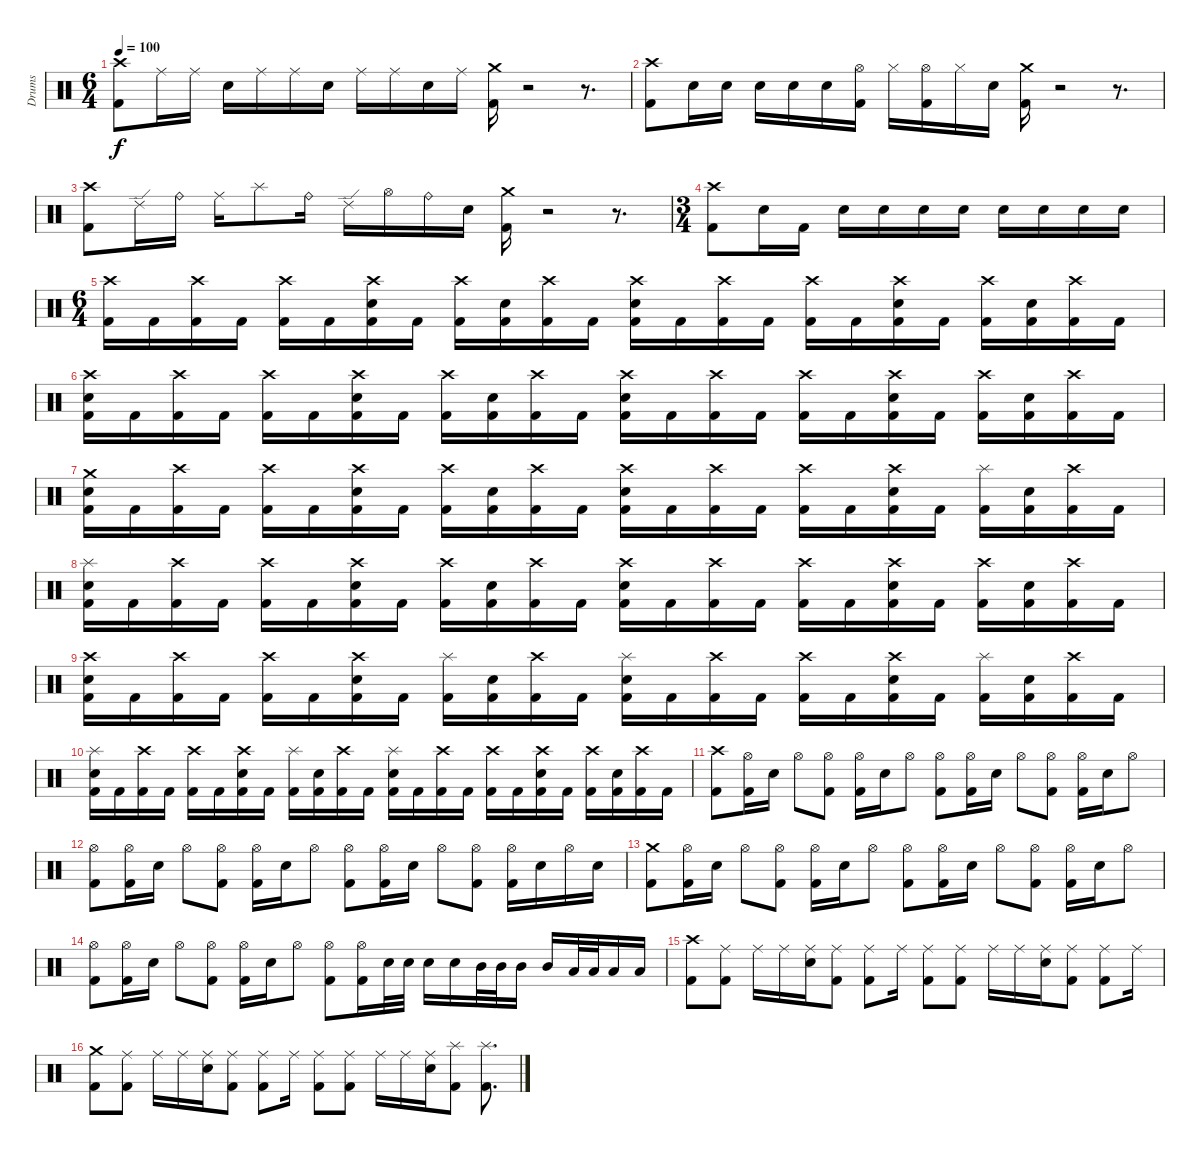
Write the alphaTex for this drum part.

\track ("Drums" "Drums") {instrument percussion}
\staff {score}
\articulation defaults
\ts (6 4)
\tempo 100
\clef neutral
\ks c
("Crash high (hit)" "Kick (hit) 2").8{dy f volume 12} "Ride (middle)".16 "Ride (middle)".16 "Electric Snare (hit)".16 "Ride (middle)".16 "Ride (middle)".16 "Electric Snare (hit)".16 "Ride (middle)".16 "Ride (middle)".16 "Electric Snare (hit)".16 "Ride (middle)".16 ("Crash medium (hit)" "Kick (hit) 2").16 r.2{volume 0} r.8{d} |
("Crash high (hit)" "Kick (hit) 2").8{volume 12} "Electric Snare (hit)".16 "Electric Snare (hit)".16 "Electric Snare (hit)".16 "Electric Snare (hit)".16 "Electric Snare (hit)".16 ("Hi-Hat (open)" "Kick (hit) 2").16 "Hi-Hat (closed)".16 ("Hi-Hat (open)" "Kick (hit) 2").16 "Hi-Hat (closed)".16 "Electric Snare (hit)".16 ("Crash medium (hit)" "Kick (hit) 2").16 r.2{volume 0} r.8{d} |
("Crash high (hit)" "Kick (hit) 2").8{volume 12} "Ride (edge) 2".16 "Ride (bell)".16 "Ride (middle)".16 "Splash (hit)".8 "Ride (bell)".16 "Ride (edge) 2".16 "Hi-Hat (open)".16 "Ride (bell)".16 "Electric Snare (hit)".16 ("Crash medium (hit)" "Kick (hit) 2").16 r.2{volume 0} r.8{d} |
\ts (3 4)
("Crash high (hit)" "Kick (hit) 2").8{volume 12} "Electric Snare (hit)".16 "Kick (hit) 2".16 "Electric Snare (hit)".16 "Electric Snare (hit)".16 "Electric Snare (hit)".16 "Electric Snare (hit)".16 "Electric Snare (hit)".16 "Electric Snare (hit)".16 "Electric Snare (hit)".16 "Electric Snare (hit)".16 |
\ts (6 4)
("Crash high (hit)" "Kick (hit) 2").16 "Kick (hit) 2".16 ("Crash high (hit)" "Kick (hit) 2").16 "Kick (hit) 2".16 ("Crash high (hit)" "Kick (hit) 2").16 "Kick (hit) 2".16 ("Crash high (hit)" "Electric Snare (hit)" "Kick (hit) 2").16 "Kick (hit) 2".16 ("Crash high (hit)" "Kick (hit) 2").16 ("Electric Snare (hit)" "Kick (hit) 2").16 ("Crash high (hit)" "Kick (hit) 2").16 "Kick (hit) 2".16 ("Crash high (hit)" "Electric Snare (hit)" "Kick (hit) 2").16 "Kick (hit) 2".16 ("Crash high (hit)" "Kick (hit) 2").16 "Kick (hit) 2".16 ("Crash high (hit)" "Kick (hit) 2").16 "Kick (hit) 2".16 ("Crash high (hit)" "Electric Snare (hit)" "Kick (hit) 2").16 "Kick (hit) 2".16 ("Crash high (hit)" "Kick (hit) 2").16 ("Electric Snare (hit)" "Kick (hit) 2").16 ("Crash high (hit)" "Kick (hit) 2").16 "Kick (hit) 2".16 |
("Crash high (hit)" "Electric Snare (hit)" "Kick (hit) 2").16 "Kick (hit) 2".16 ("Crash high (hit)" "Kick (hit) 2").16 "Kick (hit) 2".16 ("Crash high (hit)" "Kick (hit) 2").16 "Kick (hit) 2".16 ("Crash high (hit)" "Electric Snare (hit)" "Kick (hit) 2").16 "Kick (hit) 2".16 ("Crash high (hit)" "Kick (hit) 2").16 ("Electric Snare (hit)" "Kick (hit) 2").16 ("Crash high (hit)" "Kick (hit) 2").16 "Kick (hit) 2".16 ("Crash high (hit)" "Electric Snare (hit)" "Kick (hit) 2").16 "Kick (hit) 2".16 ("Crash high (hit)" "Kick (hit) 2").16 "Kick (hit) 2".16 ("Crash high (hit)" "Kick (hit) 2").16 "Kick (hit) 2".16 ("Crash high (hit)" "Electric Snare (hit)" "Kick (hit) 2").16 "Kick (hit) 2".16 ("Crash high (hit)" "Kick (hit) 2").16 ("Electric Snare (hit)" "Kick (hit) 2").16 ("Crash high (hit)" "Kick (hit) 2").16 "Kick (hit) 2".16 |
("Crash medium (hit)" "Electric Snare (hit)" "Kick (hit) 2").16 "Kick (hit) 2".16 ("Crash high (hit)" "Kick (hit) 2").16 "Kick (hit) 2".16 ("Crash high (hit)" "Kick (hit) 2").16 "Kick (hit) 2".16 ("Crash high (hit)" "Electric Snare (hit)" "Kick (hit) 2").16 "Kick (hit) 2".16 ("Crash high (hit)" "Kick (hit) 2").16 ("Electric Snare (hit)" "Kick (hit) 2").16 ("Crash high (hit)" "Kick (hit) 2").16 "Kick (hit) 2".16 ("Crash high (hit)" "Electric Snare (hit)" "Kick (hit) 2").16 "Kick (hit) 2".16 ("Crash high (hit)" "Kick (hit) 2").16 "Kick (hit) 2".16 ("Crash high (hit)" "Kick (hit) 2").16 "Kick (hit) 2".16 ("Crash high (hit)" "Electric Snare (hit)" "Kick (hit) 2").16 "Kick (hit) 2".16 ("Splash (hit)" "Kick (hit) 2").16 ("Electric Snare (hit)" "Kick (hit) 2").16 ("Crash high (hit)" "Kick (hit) 2").16 "Kick (hit) 2".16 |
("Splash (hit)" "Electric Snare (hit)" "Kick (hit) 2").16 "Kick (hit) 2".16 ("Crash high (hit)" "Kick (hit) 2").16 "Kick (hit) 2".16 ("Crash high (hit)" "Kick (hit) 2").16 "Kick (hit) 2".16 ("Crash high (hit)" "Electric Snare (hit)" "Kick (hit) 2").16 "Kick (hit) 2".16 ("Crash high (hit)" "Kick (hit) 2").16 ("Electric Snare (hit)" "Kick (hit) 2").16 ("Crash high (hit)" "Kick (hit) 2").16 "Kick (hit) 2".16 ("Crash high (hit)" "Electric Snare (hit)" "Kick (hit) 2").16 "Kick (hit) 2".16 ("Crash high (hit)" "Kick (hit) 2").16 "Kick (hit) 2".16 ("Crash high (hit)" "Kick (hit) 2").16 "Kick (hit) 2".16 ("Crash high (hit)" "Electric Snare (hit)" "Kick (hit) 2").16 "Kick (hit) 2".16 ("Crash high (hit)" "Kick (hit) 2").16 ("Electric Snare (hit)" "Kick (hit) 2").16 ("Crash high (hit)" "Kick (hit) 2").16 "Kick (hit) 2".16 |
("Crash high (hit)" "Electric Snare (hit)" "Kick (hit) 2").16 "Kick (hit) 2".16 ("Crash high (hit)" "Kick (hit) 2").16 "Kick (hit) 2".16 ("Crash high (hit)" "Kick (hit) 2").16 "Kick (hit) 2".16 ("Crash high (hit)" "Electric Snare (hit)" "Kick (hit) 2").16 "Kick (hit) 2".16 ("Splash (hit)" "Kick (hit) 2").16 ("Electric Snare (hit)" "Kick (hit) 2").16 ("Crash high (hit)" "Kick (hit) 2").16 "Kick (hit) 2".16 ("Splash (hit)" "Electric Snare (hit)" "Kick (hit) 2").16 "Kick (hit) 2".16 ("Crash high (hit)" "Kick (hit) 2").16 "Kick (hit) 2".16 ("Crash high (hit)" "Kick (hit) 2").16 "Kick (hit) 2".16 ("Crash high (hit)" "Electric Snare (hit)" "Kick (hit) 2").16 "Kick (hit) 2".16 ("Splash (hit)" "Kick (hit) 2").16 ("Electric Snare (hit)" "Kick (hit) 2").16 ("Crash high (hit)" "Kick (hit) 2").16 "Kick (hit) 2".16 |
("Splash (hit)" "Electric Snare (hit)" "Kick (hit) 2").16 "Kick (hit) 2".16 ("Crash high (hit)" "Kick (hit) 2").16 "Kick (hit) 2".16 ("Crash high (hit)" "Kick (hit) 2").16 "Kick (hit) 2".16 ("Crash high (hit)" "Electric Snare (hit)" "Kick (hit) 2").16 "Kick (hit) 2".16 ("Splash (hit)" "Kick (hit) 2").16 ("Electric Snare (hit)" "Kick (hit) 2").16 ("Crash high (hit)" "Kick (hit) 2").16 "Kick (hit) 2".16 ("Splash (hit)" "Electric Snare (hit)" "Kick (hit) 2").16 "Kick (hit) 2".16 ("Crash high (hit)" "Kick (hit) 2").16 "Kick (hit) 2".16 ("Crash high (hit)" "Kick (hit) 2").16 "Kick (hit) 2".16 ("Crash high (hit)" "Electric Snare (hit)" "Kick (hit) 2").16 "Kick (hit) 2".16 ("Crash high (hit)" "Kick (hit) 2").16 ("Electric Snare (hit)" "Kick (hit) 2").16 ("Crash high (hit)" "Kick (hit) 2").16 "Kick (hit) 2".16 |
("Crash high (hit)" "Kick (hit) 2").8 ("Hi-Hat (open)" "Kick (hit) 2").16 "Electric Snare (hit)".16 "Hi-Hat (open)".8 ("Hi-Hat (open)" "Kick (hit) 2").8 ("Hi-Hat (open)" "Kick (hit) 2").16 "Electric Snare (hit)".16 "Hi-Hat (open)".8 ("Hi-Hat (open)" "Kick (hit) 2").8 ("Hi-Hat (open)" "Kick (hit) 2").16 "Electric Snare (hit)".16 "Hi-Hat (open)".8 ("Hi-Hat (open)" "Kick (hit) 2").8 ("Hi-Hat (open)" "Kick (hit) 2").16 "Electric Snare (hit)".16 "Hi-Hat (open)".8 |
("Hi-Hat (open)" "Kick (hit) 2").8 ("Hi-Hat (open)" "Kick (hit) 2").16 "Electric Snare (hit)".16 "Hi-Hat (open)".8 ("Hi-Hat (open)" "Kick (hit) 2").8 ("Hi-Hat (open)" "Kick (hit) 2").16 "Electric Snare (hit)".16 "Hi-Hat (open)".8 ("Hi-Hat (open)" "Kick (hit) 2").8 ("Hi-Hat (open)" "Kick (hit) 2").16 "Electric Snare (hit)".16 "Hi-Hat (open)".8 ("Hi-Hat (open)" "Kick (hit) 2").8 ("Hi-Hat (open)" "Kick (hit) 2").16 "Electric Snare (hit)".16 "Hi-Hat (open)".16 "Electric Snare (hit)".16 |
("Crash medium (hit)" "Kick (hit) 2").8 ("Hi-Hat (open)" "Kick (hit) 2").16 "Electric Snare (hit)".16 "Hi-Hat (open)".8 ("Hi-Hat (open)" "Kick (hit) 2").8 ("Hi-Hat (open)" "Kick (hit) 2").16 "Electric Snare (hit)".16 "Hi-Hat (open)".8 ("Hi-Hat (open)" "Kick (hit) 2").8 ("Hi-Hat (open)" "Kick (hit) 2").16 "Electric Snare (hit)".16 "Hi-Hat (open)".8 ("Hi-Hat (open)" "Kick (hit) 2").8 ("Hi-Hat (open)" "Kick (hit) 2").16 "Electric Snare (hit)".16 "Hi-Hat (open)".8 |
("Hi-Hat (open)" "Kick (hit) 2").8 ("Hi-Hat (open)" "Kick (hit) 2").16 "Electric Snare (hit)".16 "Hi-Hat (open)".8 ("Hi-Hat (open)" "Kick (hit) 2").8 ("Hi-Hat (open)" "Kick (hit) 2").16 "Electric Snare (hit)".16 "Hi-Hat (open)".8 ("Hi-Hat (open)" "Kick (hit) 2").8 ("Hi-Hat (open)" "Kick (hit) 2").16 "Electric Snare (hit)".32 "Electric Snare (hit)".32 "Electric Snare (hit)".16 "Electric Snare (hit)".16 "Mid Tom (hit)".32 "Mid Tom (hit)".32 "Mid Tom (hit)".16 "Mid Tom (hit)".16 "Low Tom (hit)".32 "Low Tom (hit)".32 "Low Tom (hit)".16 "Low Tom (hit)".16 |
("Crash high (hit)" "Kick (hit) 2").8 ("Ride (middle)" "Kick (hit) 2").8 "Ride (middle)".16 "Ride (middle)".16 ("Ride (middle)" "Electric Snare (hit)").16 ("Ride (middle)" "Kick (hit) 2").8 ("Ride (middle)" "Kick (hit) 2").8 "Ride (middle)".16 ("Ride (middle)" "Kick (hit) 2").8 ("Ride (middle)" "Kick (hit) 2").8 "Ride (middle)".16 "Ride (middle)".16 ("Ride (middle)" "Electric Snare (hit)").16 ("Ride (middle)" "Kick (hit) 2").8 ("Ride (middle)" "Kick (hit) 2").8 "Ride (middle)".16 |
("Crash medium (hit)" "Kick (hit) 2").8 ("Ride (middle)" "Kick (hit) 2").8 "Ride (middle)".16 "Ride (middle)".16 ("Ride (middle)" "Electric Snare (hit)").16 ("Ride (middle)" "Kick (hit) 2").8 ("Ride (middle)" "Kick (hit) 2").8 "Ride (middle)".16 ("Ride (middle)" "Kick (hit) 2").8 ("Ride (middle)" "Kick (hit) 2").8 "Ride (middle)".16 "Ride (middle)".16 ("Ride (middle)" "Electric Snare (hit)").16 ("Splash (hit)" "Kick (hit) 2").8 ("Splash (hit)" "Kick (hit) 2").8{d}
